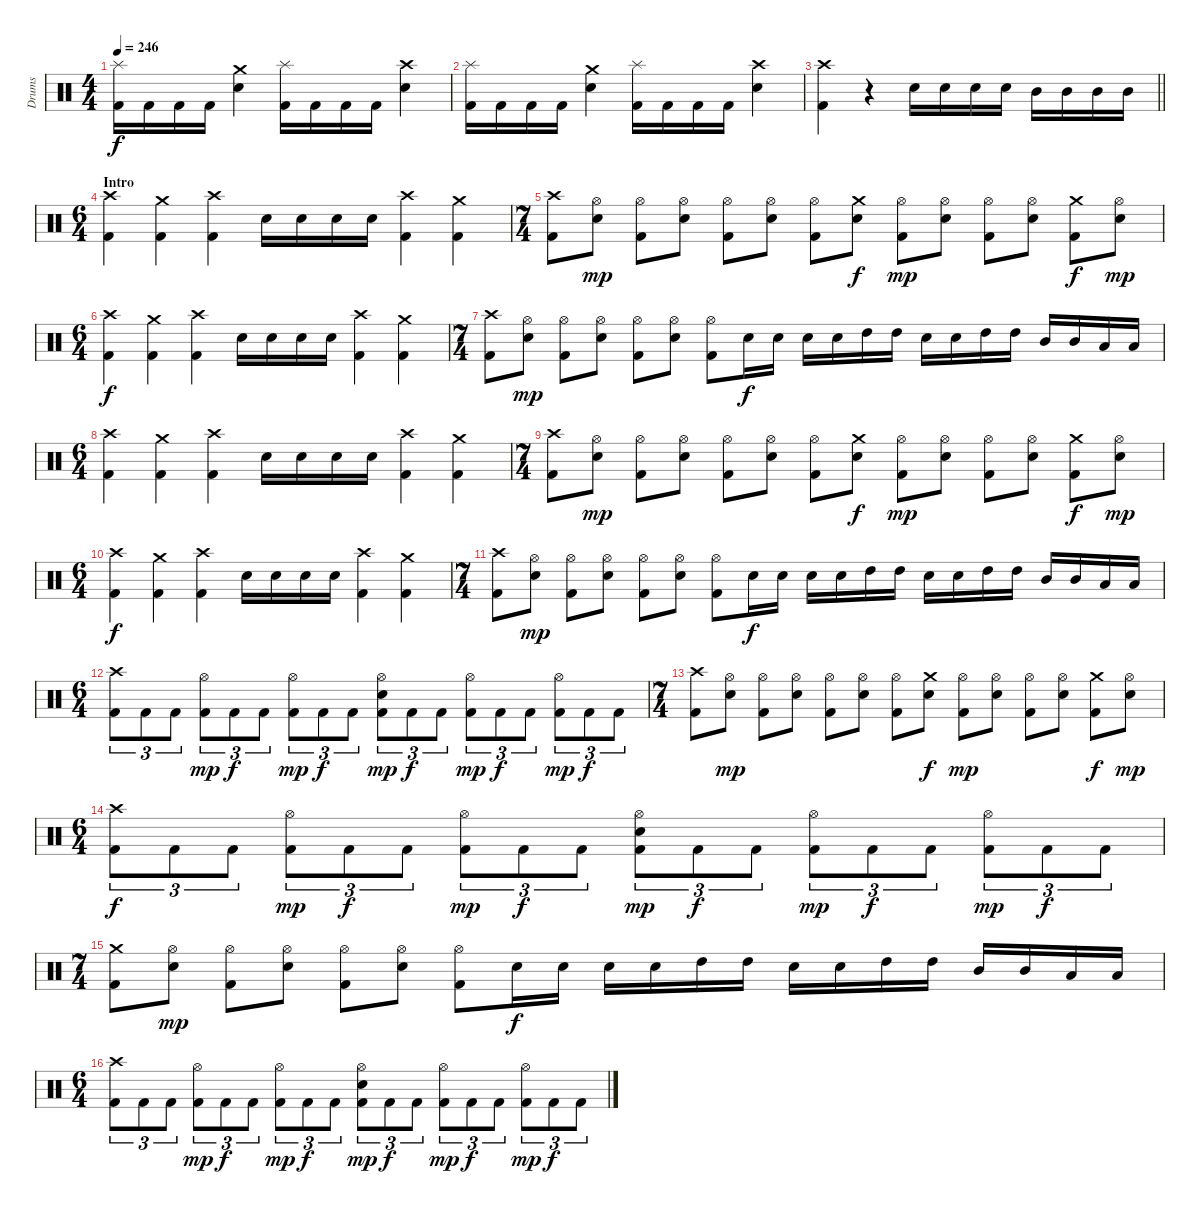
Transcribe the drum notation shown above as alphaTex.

\track ("Drums" "Drums") {instrument percussion}
\staff {score}
\articulation defaults
\ts (4 4)
\section ("" "")
\tempo 246
\clef neutral
\ks c
("Splash (hit)" "Kick (hit) 2").16{dy f} "Kick (hit) 2".16 "Kick (hit) 2".16 "Kick (hit) 2".16 ("Crash medium (hit)" "Snare (hit) 2").4 ("Splash (hit)" "Kick (hit) 2").16 "Kick (hit) 2".16 "Kick (hit) 2".16 "Kick (hit) 2".16 ("Crash high (hit)" "Snare (hit) 2").4 |
("Splash (hit)" "Kick (hit) 2").16 "Kick (hit) 2".16 "Kick (hit) 2".16 "Kick (hit) 2".16 ("Crash medium (hit)" "Snare (hit) 2").4 ("Splash (hit)" "Kick (hit) 2").16 "Kick (hit) 2".16 "Kick (hit) 2".16 "Kick (hit) 2".16 ("Crash high (hit)" "Snare (hit) 2").4 |
\barLineRight lightlight
("Crash high (hit)" "Kick (hit) 2").4 r.4 "Snare (hit) 2".16 "Snare (hit) 2".16 "Snare (hit) 2".16 "Snare (hit) 2".16 "Mid Tom (hit)".16 "Mid Tom (hit)".16 "Mid Tom (hit)".16 "Mid Tom (hit)".16 |
\ts (6 4)
\section ("" "Intro")
("Crash high (hit)" "Kick (hit) 2").4 ("Crash medium (hit)" "Kick (hit) 2").4 ("Crash high (hit)" "Kick (hit) 2").4 "Snare (hit) 2".16 "Snare (hit) 2".16 "Snare (hit) 2".16 "Snare (hit) 2".16 ("Crash high (hit)" "Kick (hit) 2").4 ("Crash medium (hit)" "Kick (hit) 2").4 |
\ts (7 4)
("Crash high (hit)" "Kick (hit) 2").8 ("Hi-Hat (open)" "Snare (hit) 2").8{dy mp} ("Hi-Hat (open)" "Kick (hit) 2").8 ("Hi-Hat (open)" "Snare (hit) 2").8 ("Hi-Hat (open)" "Kick (hit) 2").8 ("Hi-Hat (open)" "Snare (hit) 2").8 ("Hi-Hat (open)" "Kick (hit) 2").8 ("Crash medium (hit)" "Snare (hit) 2").8{dy f} ("Hi-Hat (open)" "Kick (hit) 2").8{dy mp} ("Hi-Hat (open)" "Snare (hit) 2").8 ("Hi-Hat (open)" "Kick (hit) 2").8 ("Hi-Hat (open)" "Snare (hit) 2").8 ("Crash medium (hit)" "Kick (hit) 2").8{dy f} ("Hi-Hat (open)" "Snare (hit) 2").8{dy mp} |
\ts (6 4)
("Crash high (hit)" "Kick (hit) 2").4{dy f} ("Crash medium (hit)" "Kick (hit) 2").4 ("Crash high (hit)" "Kick (hit) 2").4 "Snare (hit) 2".16 "Snare (hit) 2".16 "Snare (hit) 2".16 "Snare (hit) 2".16 ("Crash high (hit)" "Kick (hit) 2").4 ("Crash medium (hit)" "Kick (hit) 2").4 |
\ts (7 4)
("Crash high (hit)" "Kick (hit) 2").8 ("Hi-Hat (open)" "Snare (hit) 2").8{dy mp} ("Hi-Hat (open)" "Kick (hit) 2").8 ("Hi-Hat (open)" "Snare (hit) 2").8 ("Hi-Hat (open)" "Kick (hit) 2").8 ("Hi-Hat (open)" "Snare (hit) 2").8 ("Hi-Hat (open)" "Kick (hit) 2").8 "Snare (hit) 2".16{dy f} "Snare (hit) 2".16 "Snare (hit) 2".16 "Snare (hit) 2".16 "High Tom (hit)".16 "High Tom (hit)".16 "Snare (hit) 2".16 "Snare (hit) 2".16 "High Tom (hit)".16 "High Tom (hit)".16 "Mid Tom (hit)".16 "Mid Tom (hit)".16 "Low Tom (hit)".16 "Low Tom (hit)".16 |
\ts (6 4)
("Crash high (hit)" "Kick (hit) 2").4 ("Crash medium (hit)" "Kick (hit) 2").4 ("Crash high (hit)" "Kick (hit) 2").4 "Snare (hit) 2".16 "Snare (hit) 2".16 "Snare (hit) 2".16 "Snare (hit) 2".16 ("Crash high (hit)" "Kick (hit) 2").4 ("Crash medium (hit)" "Kick (hit) 2").4 |
\ts (7 4)
("Crash high (hit)" "Kick (hit) 2").8 ("Hi-Hat (open)" "Snare (hit) 2").8{dy mp} ("Hi-Hat (open)" "Kick (hit) 2").8 ("Hi-Hat (open)" "Snare (hit) 2").8 ("Hi-Hat (open)" "Kick (hit) 2").8 ("Hi-Hat (open)" "Snare (hit) 2").8 ("Hi-Hat (open)" "Kick (hit) 2").8 ("Crash medium (hit)" "Snare (hit) 2").8{dy f} ("Hi-Hat (open)" "Kick (hit) 2").8{dy mp} ("Hi-Hat (open)" "Snare (hit) 2").8 ("Hi-Hat (open)" "Kick (hit) 2").8 ("Hi-Hat (open)" "Snare (hit) 2").8 ("Crash medium (hit)" "Kick (hit) 2").8{dy f} ("Hi-Hat (open)" "Snare (hit) 2").8{dy mp} |
\ts (6 4)
("Crash high (hit)" "Kick (hit) 2").4{dy f} ("Crash medium (hit)" "Kick (hit) 2").4 ("Crash high (hit)" "Kick (hit) 2").4 "Snare (hit) 2".16 "Snare (hit) 2".16 "Snare (hit) 2".16 "Snare (hit) 2".16 ("Crash high (hit)" "Kick (hit) 2").4 ("Crash medium (hit)" "Kick (hit) 2").4 |
\ts (7 4)
("Crash high (hit)" "Kick (hit) 2").8 ("Hi-Hat (open)" "Snare (hit) 2").8{dy mp} ("Hi-Hat (open)" "Kick (hit) 2").8 ("Hi-Hat (open)" "Snare (hit) 2").8 ("Hi-Hat (open)" "Kick (hit) 2").8 ("Hi-Hat (open)" "Snare (hit) 2").8 ("Hi-Hat (open)" "Kick (hit) 2").8 "Snare (hit) 2".16{dy f} "Snare (hit) 2".16 "Snare (hit) 2".16 "Snare (hit) 2".16 "High Tom (hit)".16 "High Tom (hit)".16 "Snare (hit) 2".16 "Snare (hit) 2".16 "High Tom (hit)".16 "High Tom (hit)".16 "Mid Tom (hit)".16 "Mid Tom (hit)".16 "Low Tom (hit)".16 "Low Tom (hit)".16 |
\ts (6 4)
("Crash high (hit)" "Kick (hit) 2").8{tu (3 2)} "Kick (hit) 2".8{tu (3 2)} "Kick (hit) 2".8{tu (3 2)} ("Hi-Hat (open)" "Kick (hit) 2").8{tu (3 2) dy mp} "Kick (hit) 2".8{tu (3 2) dy f} "Kick (hit) 2".8{tu (3 2)} ("Hi-Hat (open)" "Kick (hit) 2").8{tu (3 2) dy mp} "Kick (hit) 2".8{tu (3 2) dy f} "Kick (hit) 2".8{tu (3 2)} ("Hi-Hat (open)" "Snare (hit) 2" "Kick (hit) 2").8{tu (3 2) dy mp} "Kick (hit) 2".8{tu (3 2) dy f} "Kick (hit) 2".8{tu (3 2)} ("Hi-Hat (open)" "Kick (hit) 2").8{tu (3 2) dy mp} "Kick (hit) 2".8{tu (3 2) dy f} "Kick (hit) 2".8{tu (3 2)} ("Hi-Hat (open)" "Kick (hit) 2").8{tu (3 2) dy mp} "Kick (hit) 2".8{tu (3 2) dy f} "Kick (hit) 2".8{tu (3 2)} |
\ts (7 4)
("Crash high (hit)" "Kick (hit) 2").8 ("Hi-Hat (open)" "Snare (hit) 2").8{dy mp} ("Hi-Hat (open)" "Kick (hit) 2").8 ("Hi-Hat (open)" "Snare (hit) 2").8 ("Hi-Hat (open)" "Kick (hit) 2").8 ("Hi-Hat (open)" "Snare (hit) 2").8 ("Hi-Hat (open)" "Kick (hit) 2").8 ("Crash medium (hit)" "Snare (hit) 2").8{dy f} ("Hi-Hat (open)" "Kick (hit) 2").8{dy mp} ("Hi-Hat (open)" "Snare (hit) 2").8 ("Hi-Hat (open)" "Kick (hit) 2").8 ("Hi-Hat (open)" "Snare (hit) 2").8 ("Crash medium (hit)" "Kick (hit) 2").8{dy f} ("Hi-Hat (open)" "Snare (hit) 2").8{dy mp} |
\ts (6 4)
("Crash high (hit)" "Kick (hit) 2").8{tu (3 2) dy f} "Kick (hit) 2".8{tu (3 2)} "Kick (hit) 2".8{tu (3 2)} ("Hi-Hat (open)" "Kick (hit) 2").8{tu (3 2) dy mp} "Kick (hit) 2".8{tu (3 2) dy f} "Kick (hit) 2".8{tu (3 2)} ("Hi-Hat (open)" "Kick (hit) 2").8{tu (3 2) dy mp} "Kick (hit) 2".8{tu (3 2) dy f} "Kick (hit) 2".8{tu (3 2)} ("Hi-Hat (open)" "Snare (hit) 2" "Kick (hit) 2").8{tu (3 2) dy mp} "Kick (hit) 2".8{tu (3 2) dy f} "Kick (hit) 2".8{tu (3 2)} ("Hi-Hat (open)" "Kick (hit) 2").8{tu (3 2) dy mp} "Kick (hit) 2".8{tu (3 2) dy f} "Kick (hit) 2".8{tu (3 2)} ("Hi-Hat (open)" "Kick (hit) 2").8{tu (3 2) dy mp} "Kick (hit) 2".8{tu (3 2) dy f} "Kick (hit) 2".8{tu (3 2)} |
\ts (7 4)
("Crash medium (hit)" "Kick (hit) 2").8 ("Hi-Hat (open)" "Snare (hit) 2").8{dy mp} ("Hi-Hat (open)" "Kick (hit) 2").8 ("Hi-Hat (open)" "Snare (hit) 2").8 ("Hi-Hat (open)" "Kick (hit) 2").8 ("Hi-Hat (open)" "Snare (hit) 2").8 ("Hi-Hat (open)" "Kick (hit) 2").8 "Snare (hit) 2".16{dy f} "Snare (hit) 2".16 "Snare (hit) 2".16 "Snare (hit) 2".16 "High Tom (hit)".16 "High Tom (hit)".16 "Snare (hit) 2".16 "Snare (hit) 2".16 "High Tom (hit)".16 "High Tom (hit)".16 "Mid Tom (hit)".16 "Mid Tom (hit)".16 "Low Tom (hit)".16 "Low Tom (hit)".16 |
\ts (6 4)
("Crash high (hit)" "Kick (hit) 2").8{tu (3 2)} "Kick (hit) 2".8{tu (3 2)} "Kick (hit) 2".8{tu (3 2)} ("Hi-Hat (open)" "Kick (hit) 2").8{tu (3 2) dy mp} "Kick (hit) 2".8{tu (3 2) dy f} "Kick (hit) 2".8{tu (3 2)} ("Hi-Hat (open)" "Kick (hit) 2").8{tu (3 2) dy mp} "Kick (hit) 2".8{tu (3 2) dy f} "Kick (hit) 2".8{tu (3 2)} ("Hi-Hat (open)" "Snare (hit) 2" "Kick (hit) 2").8{tu (3 2) dy mp} "Kick (hit) 2".8{tu (3 2) dy f} "Kick (hit) 2".8{tu (3 2)} ("Hi-Hat (open)" "Kick (hit) 2").8{tu (3 2) dy mp} "Kick (hit) 2".8{tu (3 2) dy f} "Kick (hit) 2".8{tu (3 2)} ("Hi-Hat (open)" "Kick (hit) 2").8{tu (3 2) dy mp} "Kick (hit) 2".8{tu (3 2) dy f} "Kick (hit) 2".8{tu (3 2)}
